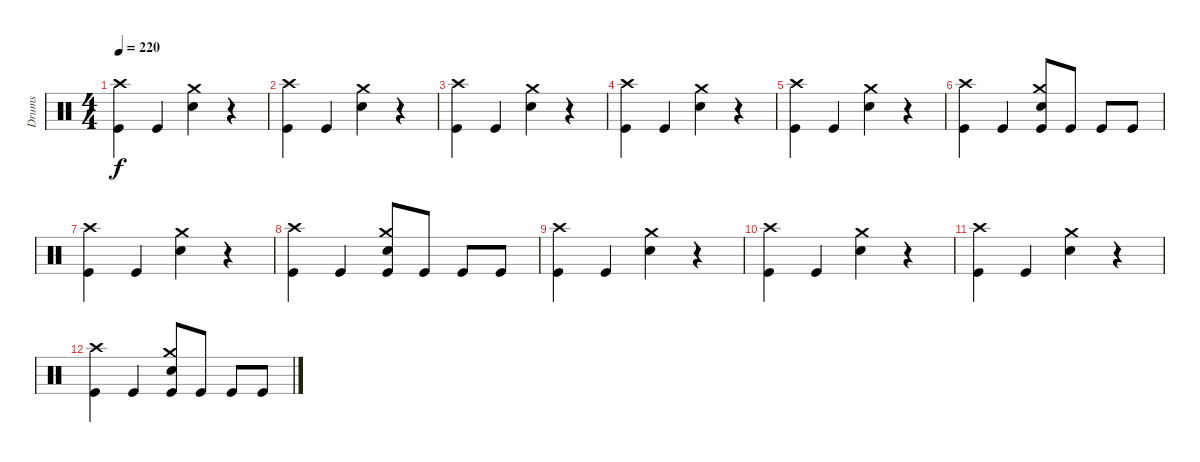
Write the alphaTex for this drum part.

\track ("Drums" "Drums") {instrument percussion}
\staff {score}
\articulation defaults
\ts (4 4)
\tempo 220
\clef neutral
\ks c
("Crash high (hit)" "Kick (hit)").4{dy f} "Kick (hit)".4 ("Crash medium (hit)" "Electric Snare (hit)").4 r.4 |
("Crash high (hit)" "Kick (hit)").4 "Kick (hit)".4 ("Crash medium (hit)" "Electric Snare (hit)").4 r.4 |
("Crash high (hit)" "Kick (hit)").4 "Kick (hit)".4 ("Crash medium (hit)" "Electric Snare (hit)").4 r.4 |
("Crash high (hit)" "Kick (hit)").4 "Kick (hit)".4 ("Crash medium (hit)" "Electric Snare (hit)").4 r.4 |
("Crash high (hit)" "Kick (hit)").4 "Kick (hit)".4 ("Crash medium (hit)" "Electric Snare (hit)").4 r.4 |
("Crash high (hit)" "Kick (hit)").4 "Kick (hit)".4 ("Crash medium (hit)" "Electric Snare (hit)" "Kick (hit)").8 "Kick (hit)".8 "Kick (hit)".8 "Kick (hit)".8 |
("Crash high (hit)" "Kick (hit)").4 "Kick (hit)".4 ("Crash medium (hit)" "Electric Snare (hit)").4 r.4 |
("Crash high (hit)" "Kick (hit)").4 "Kick (hit)".4 ("Crash medium (hit)" "Electric Snare (hit)" "Kick (hit)").8 "Kick (hit)".8 "Kick (hit)".8 "Kick (hit)".8 |
("Crash high (hit)" "Kick (hit)").4 "Kick (hit)".4 ("Crash medium (hit)" "Electric Snare (hit)").4 r.4 |
("Crash high (hit)" "Kick (hit)").4 "Kick (hit)".4 ("Crash medium (hit)" "Electric Snare (hit)").4 r.4 |
("Crash high (hit)" "Kick (hit)").4 "Kick (hit)".4 ("Crash medium (hit)" "Electric Snare (hit)").4 r.4 |
("Crash high (hit)" "Kick (hit)").4 "Kick (hit)".4 ("Crash medium (hit)" "Electric Snare (hit)" "Kick (hit)").8 "Kick (hit)".8 "Kick (hit)".8 "Kick (hit)".8
